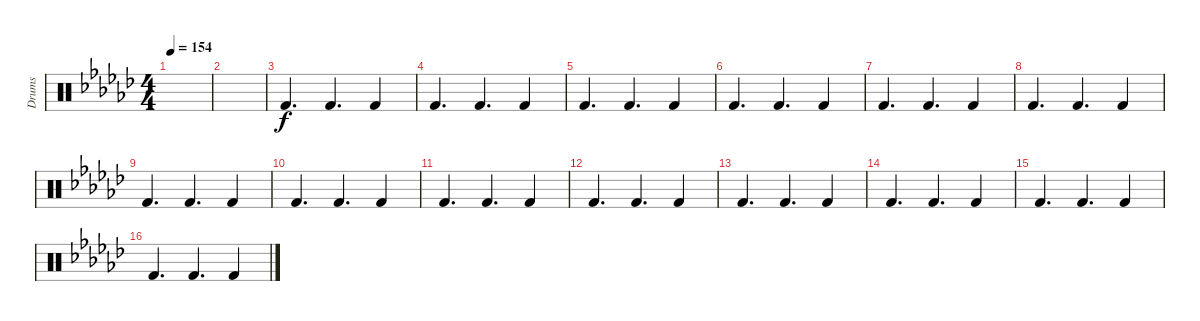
\track ("Drums" "Drums") {instrument percussion}
\staff {score}
\articulation defaults
\ts (4 4)
\tempo 154
\clef neutral
\ks gb
|
|
"Kick (hit) 2".4{d} "Kick (hit) 2".4{d} "Kick (hit) 2".4 |
"Kick (hit) 2".4{d} "Kick (hit) 2".4{d} "Kick (hit) 2".4 |
"Kick (hit) 2".4{d} "Kick (hit) 2".4{d} "Kick (hit) 2".4 |
"Kick (hit) 2".4{d} "Kick (hit) 2".4{d} "Kick (hit) 2".4 |
"Kick (hit) 2".4{d} "Kick (hit) 2".4{d} "Kick (hit) 2".4 |
"Kick (hit) 2".4{d} "Kick (hit) 2".4{d} "Kick (hit) 2".4 |
"Kick (hit) 2".4{d} "Kick (hit) 2".4{d} "Kick (hit) 2".4 |
"Kick (hit) 2".4{d} "Kick (hit) 2".4{d} "Kick (hit) 2".4 |
"Kick (hit) 2".4{d} "Kick (hit) 2".4{d} "Kick (hit) 2".4 |
"Kick (hit) 2".4{d} "Kick (hit) 2".4{d} "Kick (hit) 2".4 |
"Kick (hit) 2".4{d} "Kick (hit) 2".4{d} "Kick (hit) 2".4 |
"Kick (hit) 2".4{d} "Kick (hit) 2".4{d} "Kick (hit) 2".4 |
"Kick (hit) 2".4{d} "Kick (hit) 2".4{d} "Kick (hit) 2".4 |
"Kick (hit) 2".4{d} "Kick (hit) 2".4{d} "Kick (hit) 2".4
